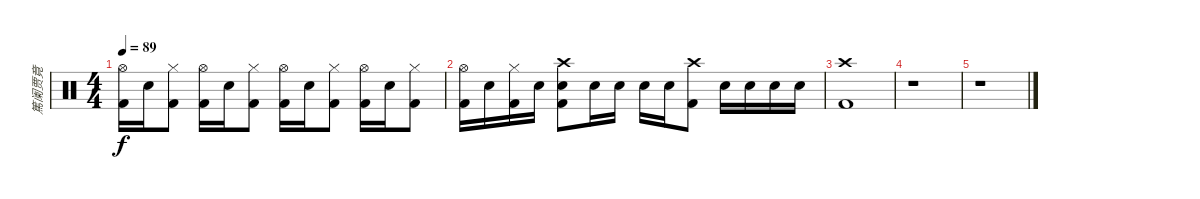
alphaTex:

\track ("篤阑贾竟" "篤阑贾竟") {instrument percussion}
\staff {score}
\articulation defaults
\ts (4 4)
\tempo 89
\clef neutral
\ks c
("Hi-Hat (open)" "Kick (hit) 2").16{dy f} "Snare (hit) 2".16 ("Hi-Hat (closed)" "Kick (hit) 2").8 ("Hi-Hat (open)" "Kick (hit) 2").16 "Snare (hit) 2".16 ("Hi-Hat (closed)" "Kick (hit) 2").8 ("Hi-Hat (open)" "Kick (hit) 2").16 "Snare (hit) 2".16 ("Hi-Hat (closed)" "Kick (hit) 2").8 ("Hi-Hat (open)" "Kick (hit) 2").16 "Snare (hit) 2".16 ("Hi-Hat (closed)" "Kick (hit) 2").8 |
("Hi-Hat (open)" "Kick (hit) 2").16 "Snare (hit) 2".16 ("Hi-Hat (closed)" "Kick (hit) 2").16 "Snare (hit) 2".16 ("Crash high (hit)" "Snare (hit) 2" "Kick (hit) 2").8 "Snare (hit) 2".16 "Snare (hit) 2".16 "Snare (hit) 2".16 "Snare (hit) 2".16 ("Crash high (hit)" "Kick (hit) 2").8 "Snare (hit) 2".16 "Snare (hit) 2".16 "Snare (hit) 2".16 "Snare (hit) 2".16 |
("Crash high (hit)" "Kick (hit) 2").1 |
r.1 |
r.1
